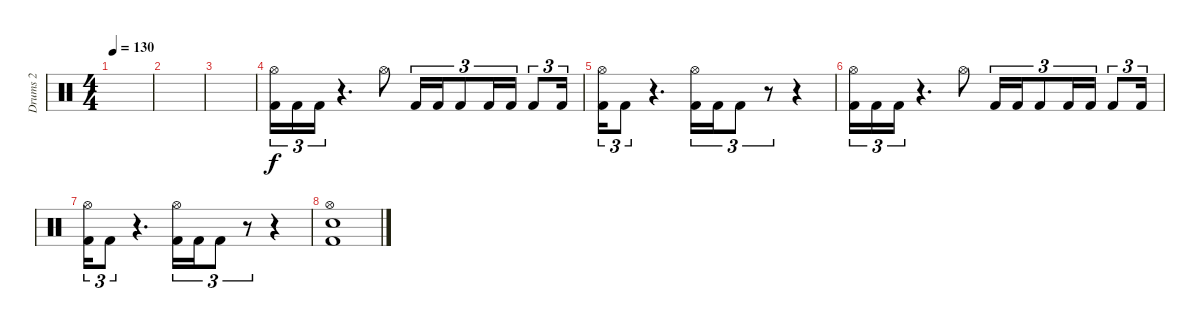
\track ("Drums 2" "Drums 2") {instrument percussion}
\staff {score}
\articulation defaults
\ts (4 4)
\tempo 130
\clef neutral
\ks c
|
|
|
("Hi-Hat (open)" "Kick (hit) 2").16{tu (3 2)} "Kick (hit) 2".16{tu (3 2)} "Kick (hit) 2".16{tu (3 2)} r.4{d} "Hi-Hat (open)".8 "Kick (hit) 2".16{tu (3 2)} "Kick (hit) 2".16{tu (3 2)} "Kick (hit) 2".8{tu (3 2)} "Kick (hit) 2".16{tu (3 2)} "Kick (hit) 2".16{tu (3 2)} "Kick (hit) 2".8{tu (3 2)} "Kick (hit) 2".16{tu (3 2)} |
("Hi-Hat (open)" "Kick (hit) 2").16{tu (3 2)} "Kick (hit) 2".8{tu (3 2)} r.4{d} ("Hi-Hat (open)" "Kick (hit) 2").16{tu (3 2)} "Kick (hit) 2".16{tu (3 2)} "Kick (hit) 2".8{tu (3 2)} r.8{tu (3 2)} r.4 |
("Hi-Hat (open)" "Kick (hit) 2").16{tu (3 2)} "Kick (hit) 2".16{tu (3 2)} "Kick (hit) 2".16{tu (3 2)} r.4{d} "Hi-Hat (open)".8 "Kick (hit) 2".16{tu (3 2)} "Kick (hit) 2".16{tu (3 2)} "Kick (hit) 2".8{tu (3 2)} "Kick (hit) 2".16{tu (3 2)} "Kick (hit) 2".16{tu (3 2)} "Kick (hit) 2".8{tu (3 2)} "Kick (hit) 2".16{tu (3 2)} |
("Hi-Hat (open)" "Kick (hit) 2").16{tu (3 2)} "Kick (hit) 2".8{tu (3 2)} r.4{d} ("Hi-Hat (open)" "Kick (hit) 2").16{tu (3 2)} "Kick (hit) 2".16{tu (3 2)} "Kick (hit) 2".8{tu (3 2)} r.8{tu (3 2)} r.4 |
("Hi-Hat (open)" "Snare (hit) 2" "Kick (hit) 2").1
